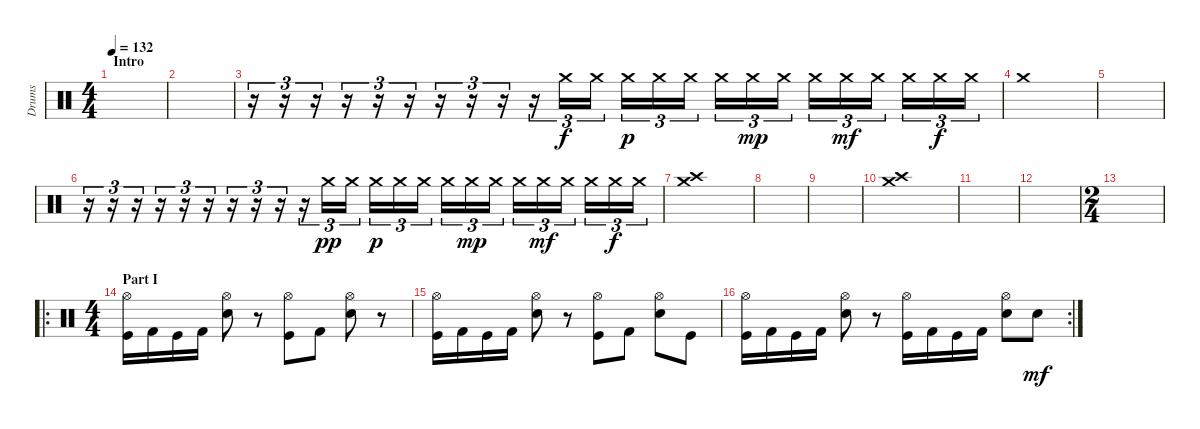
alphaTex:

\track ("Drums" "Drums") {instrument percussion}
\staff {score}
\articulation defaults
\ts (4 4)
\section ("" "Intro")
\tempo 132
\clef neutral
\ks c
|
|
r.16{tu (3 2)} r.16{tu (3 2)} r.16{tu (3 2)} r.16{tu (3 2)} r.16{tu (3 2)} r.16{tu (3 2)} r.16{tu (3 2)} r.16{tu (3 2)} r.16{tu (3 2)} r.16{tu (3 2)} "Crash medium (hit)".16{tu (3 2)} "Crash medium (hit)".16{tu (3 2)} "Crash medium (hit)".16{tu (3 2) dy p} "Crash medium (hit)".16{tu (3 2)} "Crash medium (hit)".16{tu (3 2)} "Crash medium (hit)".16{tu (3 2)} "Crash medium (hit)".16{tu (3 2) dy mp} "Crash medium (hit)".16{tu (3 2)} "Crash medium (hit)".16{tu (3 2)} "Crash medium (hit)".16{tu (3 2) dy mf} "Crash medium (hit)".16{tu (3 2)} "Crash medium (hit)".16{tu (3 2)} "Crash medium (hit)".16{tu (3 2) dy f} "Crash medium (hit)".16{tu (3 2)} |
"Crash medium (hit)".1 |
|
r.16{tu (3 2)} r.16{tu (3 2)} r.16{tu (3 2)} r.16{tu (3 2)} r.16{tu (3 2)} r.16{tu (3 2)} r.16{tu (3 2)} r.16{tu (3 2)} r.16{tu (3 2)} r.16{tu (3 2)} "Crash medium (hit)".16{tu (3 2) dy pp} "Crash medium (hit)".16{tu (3 2)} "Crash medium (hit)".16{tu (3 2) dy p} "Crash medium (hit)".16{tu (3 2)} "Crash medium (hit)".16{tu (3 2)} "Crash medium (hit)".16{tu (3 2)} "Crash medium (hit)".16{tu (3 2) dy mp} "Crash medium (hit)".16{tu (3 2)} "Crash medium (hit)".16{tu (3 2)} "Crash medium (hit)".16{tu (3 2) dy mf} "Crash medium (hit)".16{tu (3 2)} "Crash medium (hit)".16{tu (3 2)} "Crash medium (hit)".16{tu (3 2) dy f} "Crash medium (hit)".16{tu (3 2)} |
("Crash medium (hit)" "Crash high (hit)").1 |
|
|
("Crash medium (hit)" "Crash high (hit)").1 |
|
|
\ts (2 4)
|
\ro
\ts (4 4)
\section ("" "Part I")
("Hi-Hat (open)" "Kick (hit)").16 "Kick (hit) 2".16 "Kick (hit)".16 "Kick (hit) 2".16 ("Hi-Hat (open)" "Electric Snare (hit)").8 r.8 ("Hi-Hat (open)" "Kick (hit)").8 "Kick (hit) 2".8 ("Hi-Hat (open)" "Electric Snare (hit)").8 r.8 |
("Hi-Hat (open)" "Kick (hit)").16 "Kick (hit) 2".16 "Kick (hit)".16 "Kick (hit) 2".16 ("Hi-Hat (open)" "Electric Snare (hit)").8 r.8 ("Hi-Hat (open)" "Kick (hit)").8 "Kick (hit) 2".8 ("Hi-Hat (open)" "Electric Snare (hit)").8 "Kick (hit)".8 |
\rc 2
("Hi-Hat (open)" "Kick (hit)").16 "Kick (hit) 2".16 "Kick (hit)".16 "Kick (hit) 2".16 ("Hi-Hat (open)" "Electric Snare (hit)").8 r.8 ("Hi-Hat (open)" "Kick (hit)").16 "Kick (hit) 2".16 "Kick (hit)".16 "Kick (hit) 2".16 ("Hi-Hat (open)" "Electric Snare (hit)").8 "Electric Snare (hit)".8{dy mf}
